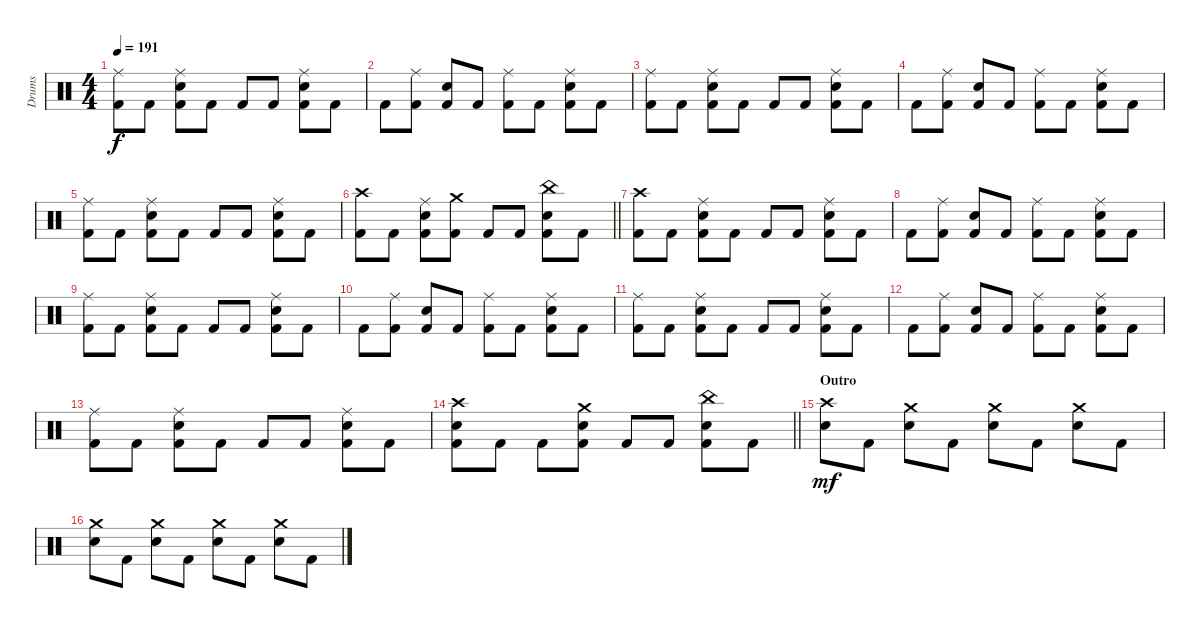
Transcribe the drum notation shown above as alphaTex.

\track ("Drums" "Drums") {instrument percussion}
\staff {score}
\articulation defaults
\ts (4 4)
\tempo 191
\clef neutral
\ks c
("Ride (middle)" "Kick (hit) 2").8{dy f} "Kick (hit) 2".8 ("Ride (middle)" "Snare (hit) 2" "Kick (hit) 2").8 "Kick (hit) 2".8 "Kick (hit) 2".8 "Kick (hit) 2".8 ("Ride (middle)" "Snare (hit) 2" "Kick (hit) 2").8 "Kick (hit) 2".8 |
"Kick (hit) 2".8 ("Ride (middle)" "Kick (hit) 2").8 ("Snare (hit) 2" "Kick (hit) 2").8 "Kick (hit) 2".8 ("Ride (middle)" "Kick (hit) 2").8 "Kick (hit) 2".8 ("Ride (middle)" "Snare (hit) 2" "Kick (hit) 2").8 "Kick (hit) 2".8 |
("Ride (middle)" "Kick (hit) 2").8 "Kick (hit) 2".8 ("Ride (middle)" "Snare (hit) 2" "Kick (hit) 2").8 "Kick (hit) 2".8 "Kick (hit) 2".8 "Kick (hit) 2".8 ("Ride (middle)" "Snare (hit) 2" "Kick (hit) 2").8 "Kick (hit) 2".8 |
"Kick (hit) 2".8 ("Ride (middle)" "Kick (hit) 2").8 ("Snare (hit) 2" "Kick (hit) 2").8 "Kick (hit) 2".8 ("Ride (middle)" "Kick (hit) 2").8 "Kick (hit) 2".8 ("Ride (middle)" "Snare (hit) 2" "Kick (hit) 2").8 "Kick (hit) 2".8 |
("Ride (middle)" "Kick (hit) 2").8 "Kick (hit) 2".8 ("Ride (middle)" "Snare (hit) 2" "Kick (hit) 2").8 "Kick (hit) 2".8 "Kick (hit) 2".8 "Kick (hit) 2".8 ("Ride (middle)" "Snare (hit) 2" "Kick (hit) 2").8 "Kick (hit) 2".8 |
\barLineRight lightlight
("Crash high (hit)" "Kick (hit) 2").8 "Kick (hit) 2".8 ("Ride (middle)" "Snare (hit) 2" "Kick (hit) 2").8 ("Crash medium (hit)" "Kick (hit) 2").8 "Kick (hit) 2".8 "Kick (hit) 2".8 ("China (hit)" "Snare (hit) 2" "Kick (hit) 2").8 "Kick (hit) 2".8 |
\section ("" "")
("Crash high (hit)" "Kick (hit) 2").8 "Kick (hit) 2".8 ("Ride (middle)" "Snare (hit) 2" "Kick (hit) 2").8 "Kick (hit) 2".8 "Kick (hit) 2".8 "Kick (hit) 2".8 ("Ride (middle)" "Snare (hit) 2" "Kick (hit) 2").8 "Kick (hit) 2".8 |
"Kick (hit) 2".8 ("Ride (middle)" "Kick (hit) 2").8 ("Snare (hit) 2" "Kick (hit) 2").8 "Kick (hit) 2".8 ("Ride (middle)" "Kick (hit) 2").8 "Kick (hit) 2".8 ("Ride (middle)" "Snare (hit) 2" "Kick (hit) 2").8 "Kick (hit) 2".8 |
("Ride (middle)" "Kick (hit) 2").8 "Kick (hit) 2".8 ("Ride (middle)" "Snare (hit) 2" "Kick (hit) 2").8 "Kick (hit) 2".8 "Kick (hit) 2".8 "Kick (hit) 2".8 ("Ride (middle)" "Snare (hit) 2" "Kick (hit) 2").8 "Kick (hit) 2".8 |
"Kick (hit) 2".8 ("Ride (middle)" "Kick (hit) 2").8 ("Snare (hit) 2" "Kick (hit) 2").8 "Kick (hit) 2".8 ("Ride (middle)" "Kick (hit) 2").8 "Kick (hit) 2".8 ("Ride (middle)" "Snare (hit) 2" "Kick (hit) 2").8 "Kick (hit) 2".8 |
("Ride (middle)" "Kick (hit) 2").8 "Kick (hit) 2".8 ("Ride (middle)" "Snare (hit) 2" "Kick (hit) 2").8 "Kick (hit) 2".8 "Kick (hit) 2".8 "Kick (hit) 2".8 ("Ride (middle)" "Snare (hit) 2" "Kick (hit) 2").8 "Kick (hit) 2".8 |
"Kick (hit) 2".8 ("Ride (middle)" "Kick (hit) 2").8 ("Snare (hit) 2" "Kick (hit) 2").8 "Kick (hit) 2".8 ("Ride (middle)" "Kick (hit) 2").8 "Kick (hit) 2".8 ("Ride (middle)" "Snare (hit) 2" "Kick (hit) 2").8 "Kick (hit) 2".8 |
("Ride (middle)" "Kick (hit) 2").8 "Kick (hit) 2".8 ("Ride (middle)" "Snare (hit) 2" "Kick (hit) 2").8 "Kick (hit) 2".8 "Kick (hit) 2".8 "Kick (hit) 2".8 ("Ride (middle)" "Snare (hit) 2" "Kick (hit) 2").8 "Kick (hit) 2".8 |
\barLineRight lightlight
("Crash high (hit)" "Snare (hit) 2" "Kick (hit) 2").8 "Kick (hit) 2".8 "Kick (hit) 2".8 ("Crash medium (hit)" "Snare (hit) 2" "Kick (hit) 2").8 "Kick (hit) 2".8 "Kick (hit) 2".8 ("China (hit)" "Snare (hit) 2" "Kick (hit) 2").8 "Kick (hit) 2".8 |
\section ("" "Outro")
("Crash high (hit)" "Snare (hit) 2").8{dy mf} "Kick (hit) 2".8 ("Crash medium (hit)" "Snare (hit) 2").8 "Kick (hit) 2".8 ("Crash medium (hit)" "Snare (hit) 2").8 "Kick (hit) 2".8 ("Crash medium (hit)" "Snare (hit) 2").8 "Kick (hit) 2".8 |
("Crash medium (hit)" "Snare (hit) 2").8 "Kick (hit) 2".8 ("Crash medium (hit)" "Snare (hit) 2").8 "Kick (hit) 2".8 ("Crash medium (hit)" "Snare (hit) 2").8 "Kick (hit) 2".8 ("Crash medium (hit)" "Snare (hit) 2").8 "Kick (hit) 2".8
